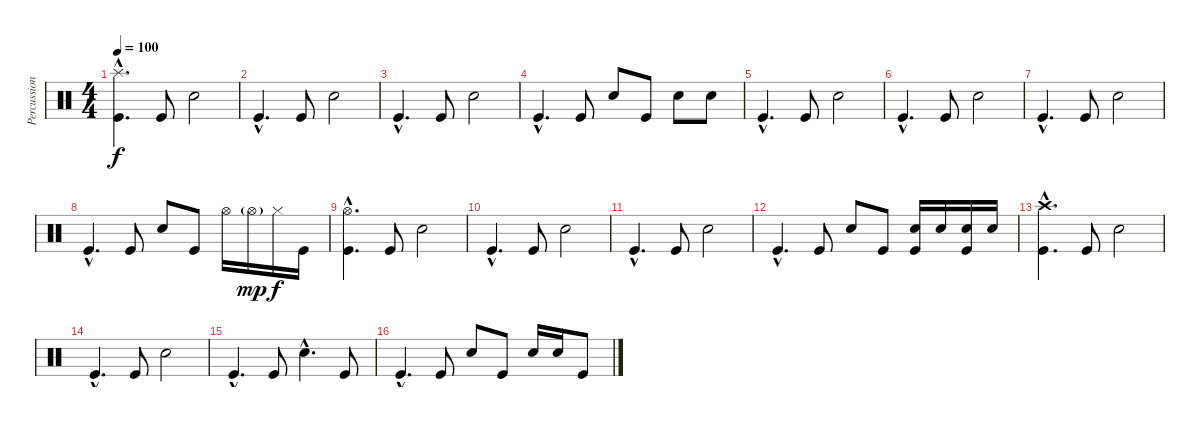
\track ("Percussion" "Percussion") {instrument percussion}
\staff {score}
\articulation defaults
\ts (4 4)
\tempo 100
\clef neutral
\ks c
("Splash (hit)"{hac} "Kick (hit)"{hac}).4{d dy f} "Kick (hit)".8 "Snare (hit) 2".2 |
"Kick (hit)"{hac}.4{d} "Kick (hit)".8 "Snare (hit) 2".2 |
"Kick (hit)"{hac}.4{d} "Kick (hit)".8 "Snare (hit) 2".2 |
"Kick (hit)"{hac}.4{d} "Kick (hit)".8 "Snare (hit) 2".8 "Kick (hit)".8 "Snare (hit) 2".8 "Snare (hit) 2".8 |
"Kick (hit)"{hac}.4{d} "Kick (hit)".8 "Snare (hit) 2".2 |
"Kick (hit)"{hac}.4{d} "Kick (hit)".8 "Snare (hit) 2".2 |
"Kick (hit)"{hac}.4{d} "Kick (hit)".8 "Snare (hit) 2".2 |
"Kick (hit)"{hac}.4{d} "Kick (hit)".8 "Snare (hit) 2".8 "Kick (hit)".8 "Hi-Hat (open)".16 "Hi-Hat (open)"{g}.16{dy mp} "Hi-Hat (closed)".16{dy f} "Kick (hit)".16 |
("Hi-Hat (open)"{hac} "Kick (hit)"{hac}).4{d} "Kick (hit)".8 "Snare (hit) 2".2 |
"Kick (hit)"{hac}.4{d} "Kick (hit)".8 "Snare (hit) 2".2 |
"Kick (hit)"{hac}.4{d} "Kick (hit)".8 "Snare (hit) 2".2 |
"Kick (hit)"{hac}.4{d} "Kick (hit)".8 "Snare (hit) 2".8 "Kick (hit)".8 ("Snare (hit) 2" "Kick (hit)").16 "Snare (hit) 2".16 ("Snare (hit) 2" "Kick (hit)").16 "Snare (hit) 2".16 |
("Crash high (hit)"{hac} "Kick (hit)"{hac}).4{d} "Kick (hit)".8 "Snare (hit) 2".2 |
"Kick (hit)"{hac}.4{d} "Kick (hit)".8 "Snare (hit) 2".2 |
"Kick (hit)"{hac}.4{d} "Kick (hit)".8 "Snare (hit) 2"{hac}.4{d} "Kick (hit)".8 |
"Kick (hit)"{hac}.4{d} "Kick (hit)".8 "Snare (hit) 2".8 "Kick (hit)".8 "Snare (hit) 2".16 "Snare (hit) 2".16 "Kick (hit)".8
